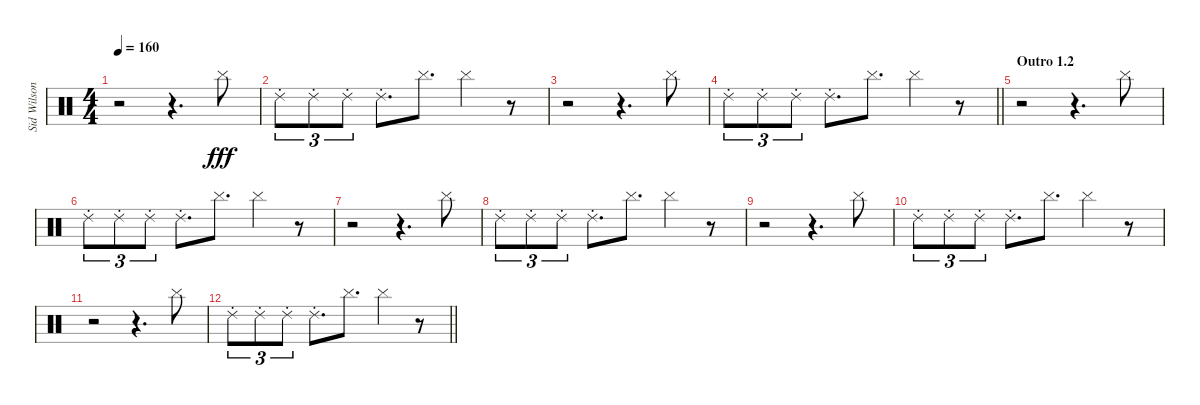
\track ("Sid Wilson" "Sid Wilson") {instrument percussion}
\staff {score}
\articulation defaults
\ts (4 4)
\tempo 160
\clef neutral
\ks c
r.2{dy fff} r.4{d} "Cymbal (hit)".8 |
"Ride (choke) 2".8{tu (3 2)} "Ride (choke) 2".8{tu (3 2)} "Ride (choke) 2".8{tu (3 2)} "Ride (choke) 2".8{d} "Cymbal (hit)".8{d} "Cymbal (hit)".4 r.8 |
r.2 r.4{d} "Cymbal (hit)".8 |
\barLineRight lightlight "Ride (choke) 2".8{tu (3 2)} "Ride (choke) 2".8{tu (3 2)} "Ride (choke) 2".8{tu (3 2)} "Ride (choke) 2".8{d} "Cymbal (hit)".8{d} "Cymbal (hit)".4
r.8 |
\section ("" "Outro 1.2")
r.2 r.4{d} "Cymbal (hit)".8 |
"Ride (choke) 2".8{tu (3 2)} "Ride (choke) 2".8{tu (3 2)} "Ride (choke) 2".8{tu (3 2)} "Ride (choke) 2".8{d} "Cymbal (hit)".8{d} "Cymbal (hit)".4 r.8 |
r.2 r.4{d} "Cymbal (hit)".8 |
"Ride (choke) 2".8{tu (3 2)} "Ride (choke) 2".8{tu (3 2)} "Ride (choke) 2".8{tu (3 2)} "Ride (choke) 2".8{d} "Cymbal (hit)".8{d} "Cymbal (hit)".4 r.8 |
r.2 r.4{d} "Cymbal (hit)".8 |
"Ride (choke) 2".8{tu (3 2)} "Ride (choke) 2".8{tu (3 2)} "Ride (choke) 2".8{tu (3 2)} "Ride (choke) 2".8{d} "Cymbal (hit)".8{d} "Cymbal (hit)".4 r.8 |
r.2 r.4{d} "Cymbal (hit)".8 |
\barLineRight lightlight "Ride (choke) 2".8{tu (3 2)} "Ride (choke) 2".8{tu (3 2)} "Ride (choke) 2".8{tu (3 2)} "Ride (choke) 2".8{d} "Cymbal (hit)".8{d} "Cymbal (hit)".4
r.8
